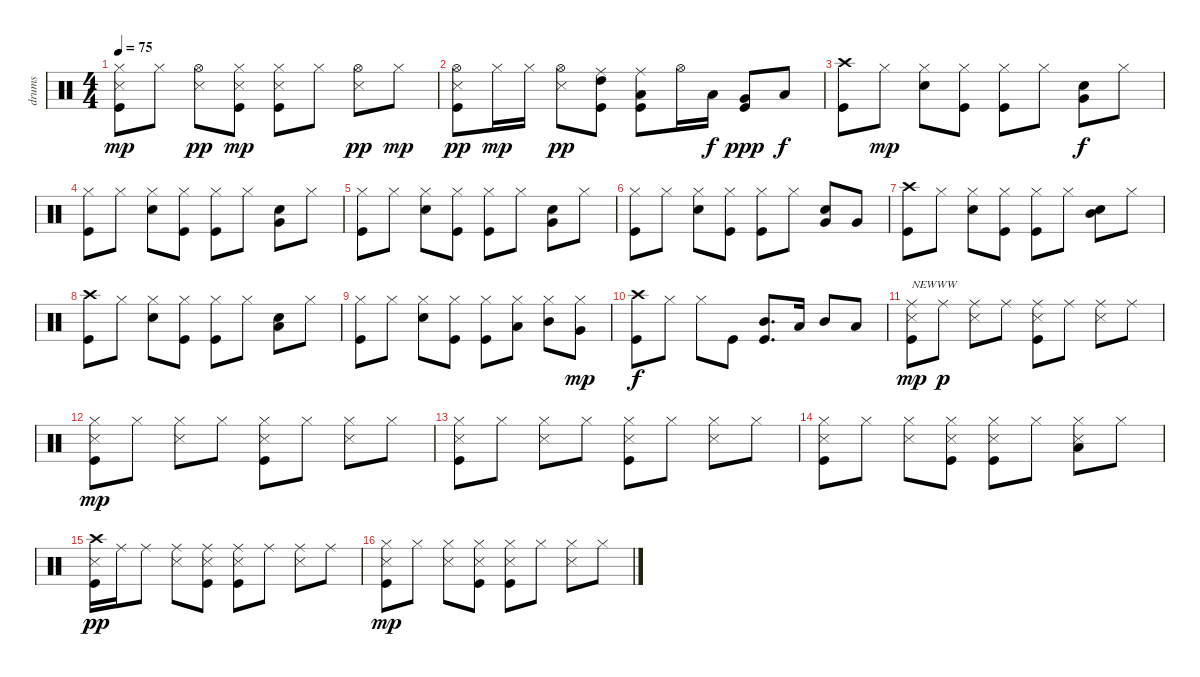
\track ("drums" "drums") {instrument percussion}
\staff {score}
\articulation defaults
\ts (4 4)
\tempo 75
\clef neutral
\ks c
("Metronome (hit)" "Hi-Hat (closed)" "Kick (hit)").8{dy mp} "Hi-Hat (closed)".8 ("Metronome (hit)" "Hi-Hat (open)").8{dy pp} ("Metronome (hit)" "Hi-Hat (closed)" "Kick (hit)").8{dy mp} ("Metronome (hit)" "Hi-Hat (closed)" "Kick (hit)").8 "Hi-Hat (closed)".8 ("Metronome (hit)" "Hi-Hat (open)").8{dy pp} "Hi-Hat (closed)".8{dy mp} |
("Metronome (hit)" "Hi-Hat (open)" "Kick (hit)").8{dy pp} "Hi-Hat (closed)".16{dy mp} "Hi-Hat (closed)".16 ("Metronome (hit)" "Hi-Hat (open)").8{dy pp} ("Ride (middle)" "High Tom (hit)" "Kick (hit)").8 ("Ride (middle)" "Low Tom (hit)" "Kick (hit)").8 "Hi-Hat (open)".16 "Low Tom (hit)".16{dy f} ("Very Low Tom (hit)" "Kick (hit)").8{dy ppp} "Low Floor Tom (hit)".8{dy f} |
("Crash high (hit)" "Kick (hit)").8 "Hi-Hat (closed)".8{dy mp} ("Snare (hit) 2" "Hi-Hat (closed)").8 ("Hi-Hat (closed)" "Kick (hit)").8 ("Hi-Hat (closed)" "Kick (hit)").8 "Hi-Hat (closed)".8 ("Very Low Tom (hit)" "Snare (hit) 2").8{dy f} "Hi-Hat (closed)".8 |
("Hi-Hat (closed)" "Kick (hit)").8 "Hi-Hat (closed)".8 ("Snare (hit) 2" "Hi-Hat (closed)").8 ("Hi-Hat (closed)" "Kick (hit)").8 ("Hi-Hat (closed)" "Kick (hit)").8 "Hi-Hat (closed)".8 ("Very Low Tom (hit)" "Snare (hit) 2").8 "Hi-Hat (closed)".8 |
("Hi-Hat (closed)" "Kick (hit)").8 "Hi-Hat (closed)".8 ("Snare (hit) 2" "Hi-Hat (closed)").8 ("Hi-Hat (closed)" "Kick (hit)").8 ("Hi-Hat (closed)" "Kick (hit)").8 "Hi-Hat (closed)".8 ("Very Low Tom (hit)" "Snare (hit) 2").8 "Hi-Hat (closed)".8 |
("Hi-Hat (closed)" "Kick (hit)").8 "Hi-Hat (closed)".8 ("Snare (hit) 2" "Hi-Hat (closed)").8 ("Hi-Hat (closed)" "Kick (hit)").8 ("Hi-Hat (closed)" "Kick (hit)").8 "Hi-Hat (closed)".8 ("Very Low Tom (hit)" "Snare (hit) 2").8 "Very Low Tom (hit)".8 |
("Crash high (hit)" "Kick (hit)").8 "Hi-Hat (closed)".8 ("Snare (hit) 2" "Hi-Hat (closed)").8 ("Hi-Hat (closed)" "Kick (hit)").8 ("Hi-Hat (closed)" "Kick (hit)").8 "Hi-Hat (closed)".8 ("Mid Tom (hit)" "Snare (hit) 2").8 "Hi-Hat (closed)".8 |
("Crash high (hit)" "Kick (hit)").8 "Hi-Hat (closed)".8 ("Snare (hit) 2" "Hi-Hat (closed)").8 ("Hi-Hat (closed)" "Kick (hit)").8 ("Hi-Hat (closed)" "Kick (hit)").8 "Hi-Hat (closed)".8 ("Low Tom (hit)" "Snare (hit) 2").8 "Hi-Hat (closed)".8 |
("Hi-Hat (closed)" "Kick (hit)").8 "Hi-Hat (closed)".8 ("Snare (hit) 2" "Hi-Hat (closed)").8 ("Hi-Hat (closed)" "Kick (hit)").8{txt " "} ("Hi-Hat (closed)" "Kick (hit)").8{txt " "} ("Low Tom (hit)" "Hi-Hat (closed)").8{txt " "} ("Mid Tom (hit)" "Hi-Hat (closed)").8 ("Very Low Tom (hit)" "Hi-Hat (closed)").8{dy mp} |
("Crash high (hit)" "Kick (hit)").8{dy f} "Hi-Hat (closed)".8 "Hi-Hat (closed)".8 "Kick (hit)".8 ("Mid Tom (hit)" "Kick (hit)").8{d} "Low Tom (hit)".16 "Mid Tom (hit)".8 "Low Tom (hit)".8 |
("Ride (middle)" "Metronome (hit)" "Kick (hit)").8{txt "NEWWW" dy mp} "Ride (middle)".8{dy p} ("Ride (middle)" "Metronome (hit)").8 "Ride (middle)".8 ("Ride (middle)" "Metronome (hit)" "Kick (hit)").8 "Ride (middle)".8 ("Ride (middle)" "Metronome (hit)").8 "Ride (middle)".8 |
("Metronome (hit)" "Hi-Hat (closed)" "Kick (hit)").8{dy mp} "Hi-Hat (closed)".8 ("Metronome (hit)" "Hi-Hat (closed)").8 "Hi-Hat (closed)".8 ("Metronome (hit)" "Hi-Hat (closed)" "Kick (hit)").8 "Hi-Hat (closed)".8 ("Metronome (hit)" "Hi-Hat (closed)").8 "Hi-Hat (closed)".8 |
("Metronome (hit)" "Hi-Hat (closed)" "Kick (hit)").8 "Hi-Hat (closed)".8 ("Metronome (hit)" "Hi-Hat (closed)").8 "Hi-Hat (closed)".8 ("Metronome (hit)" "Hi-Hat (closed)" "Kick (hit)").8 "Hi-Hat (closed)".8 ("Metronome (hit)" "Hi-Hat (closed)").8 "Hi-Hat (closed)".8 |
("Metronome (hit)" "Hi-Hat (closed)" "Kick (hit)").8 "Hi-Hat (closed)".8 ("Metronome (hit)" "Hi-Hat (closed)").8 ("Metronome (hit)" "Hi-Hat (closed)" "Kick (hit)").8 ("Metronome (hit)" "Hi-Hat (closed)" "Kick (hit)").8 "Hi-Hat (closed)".8 ("Low Tom (hit)" "Metronome (hit)" "Hi-Hat (closed)").8 "Hi-Hat (closed)".8 |
("Crash high (hit)" "Metronome (hit)" "Kick (hit)").16{dy pp} "Ride (middle)".16 "Ride (middle)".8 ("Ride (middle)" "Metronome (hit)").8 ("Ride (middle)" "Metronome (hit)" "Kick (hit)").8 ("Ride (middle)" "Metronome (hit)" "Kick (hit)").8 "Ride (middle)".8 ("Ride (middle)" "Metronome (hit)").8 "Ride (middle)".8 |
("Metronome (hit)" "Hi-Hat (closed)" "Kick (hit)").8{dy mp} "Hi-Hat (closed)".8 ("Metronome (hit)" "Hi-Hat (closed)").8 ("Metronome (hit)" "Hi-Hat (closed)" "Kick (hit)").8 ("Metronome (hit)" "Hi-Hat (closed)" "Kick (hit)").8 "Hi-Hat (closed)".8 ("Metronome (hit)" "Hi-Hat (closed)").8 "Hi-Hat (closed)".8
